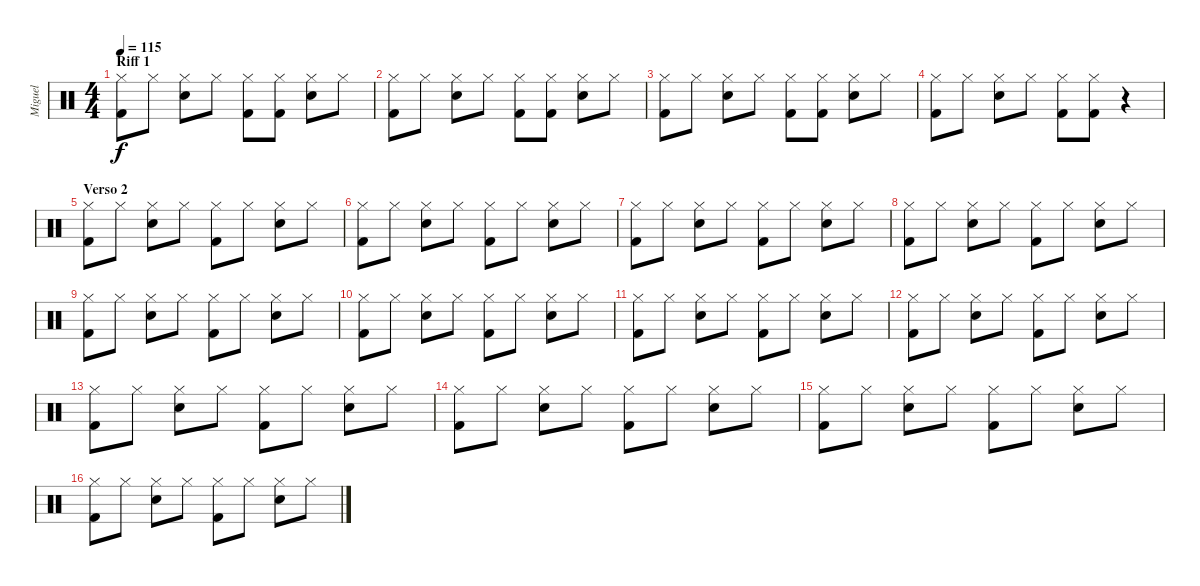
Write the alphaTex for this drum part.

\track ("Miguel" "Miguel") {instrument percussion}
\staff {score}
\articulation defaults
\ts (4 4)
\section ("" "Riff 1")
\tempo 115
\clef neutral
\ks c
("Hi-Hat (closed)" "Kick (hit) 2").8{dy f} "Hi-Hat (closed)".8 ("Hi-Hat (closed)" "Snare (hit) 2").8 "Hi-Hat (closed)".8 ("Hi-Hat (closed)" "Kick (hit) 2").8 ("Hi-Hat (closed)" "Kick (hit) 2").8 ("Hi-Hat (closed)" "Snare (hit) 2").8 "Hi-Hat (closed)".8 |
("Hi-Hat (closed)" "Kick (hit) 2").8 "Hi-Hat (closed)".8 ("Hi-Hat (closed)" "Snare (hit) 2").8 "Hi-Hat (closed)".8 ("Hi-Hat (closed)" "Kick (hit) 2").8 ("Hi-Hat (closed)" "Kick (hit) 2").8 ("Hi-Hat (closed)" "Snare (hit) 2").8 "Hi-Hat (closed)".8 |
("Hi-Hat (closed)" "Kick (hit) 2").8 "Hi-Hat (closed)".8 ("Hi-Hat (closed)" "Snare (hit) 2").8 "Hi-Hat (closed)".8 ("Hi-Hat (closed)" "Kick (hit) 2").8 ("Hi-Hat (closed)" "Kick (hit) 2").8 ("Hi-Hat (closed)" "Snare (hit) 2").8 "Hi-Hat (closed)".8 |
("Hi-Hat (closed)" "Kick (hit) 2").8 "Hi-Hat (closed)".8 ("Hi-Hat (closed)" "Snare (hit) 2").8 "Hi-Hat (closed)".8 ("Hi-Hat (closed)" "Kick (hit) 2").8 ("Hi-Hat (closed)" "Kick (hit) 2").8 r.4 |
\section ("" "Verso 2")
("Hi-Hat (closed)" "Kick (hit) 2").8 "Hi-Hat (closed)".8 ("Hi-Hat (closed)" "Snare (hit) 2").8 "Hi-Hat (closed)".8 ("Hi-Hat (closed)" "Kick (hit) 2").8 "Hi-Hat (closed)".8 ("Hi-Hat (closed)" "Snare (hit) 2").8 "Hi-Hat (closed)".8 |
("Hi-Hat (closed)" "Kick (hit) 2").8 "Hi-Hat (closed)".8 ("Hi-Hat (closed)" "Snare (hit) 2").8 "Hi-Hat (closed)".8 ("Hi-Hat (closed)" "Kick (hit) 2").8 "Hi-Hat (closed)".8 ("Hi-Hat (closed)" "Snare (hit) 2").8 "Hi-Hat (closed)".8 |
("Hi-Hat (closed)" "Kick (hit) 2").8 "Hi-Hat (closed)".8 ("Hi-Hat (closed)" "Snare (hit) 2").8 "Hi-Hat (closed)".8 ("Hi-Hat (closed)" "Kick (hit) 2").8 "Hi-Hat (closed)".8 ("Hi-Hat (closed)" "Snare (hit) 2").8 "Hi-Hat (closed)".8 |
("Hi-Hat (closed)" "Kick (hit) 2").8 "Hi-Hat (closed)".8 ("Hi-Hat (closed)" "Snare (hit) 2").8 "Hi-Hat (closed)".8 ("Hi-Hat (closed)" "Kick (hit) 2").8 "Hi-Hat (closed)".8 ("Hi-Hat (closed)" "Snare (hit) 2").8 "Hi-Hat (closed)".8 |
("Hi-Hat (closed)" "Kick (hit) 2").8 "Hi-Hat (closed)".8 ("Hi-Hat (closed)" "Snare (hit) 2").8 "Hi-Hat (closed)".8 ("Hi-Hat (closed)" "Kick (hit) 2").8 "Hi-Hat (closed)".8 ("Hi-Hat (closed)" "Snare (hit) 2").8 "Hi-Hat (closed)".8 |
("Hi-Hat (closed)" "Kick (hit) 2").8 "Hi-Hat (closed)".8 ("Hi-Hat (closed)" "Snare (hit) 2").8 "Hi-Hat (closed)".8 ("Hi-Hat (closed)" "Kick (hit) 2").8 "Hi-Hat (closed)".8 ("Hi-Hat (closed)" "Snare (hit) 2").8 "Hi-Hat (closed)".8 |
("Hi-Hat (closed)" "Kick (hit) 2").8 "Hi-Hat (closed)".8 ("Hi-Hat (closed)" "Snare (hit) 2").8 "Hi-Hat (closed)".8 ("Hi-Hat (closed)" "Kick (hit) 2").8 "Hi-Hat (closed)".8 ("Hi-Hat (closed)" "Snare (hit) 2").8 "Hi-Hat (closed)".8 |
("Hi-Hat (closed)" "Kick (hit) 2").8 "Hi-Hat (closed)".8 ("Hi-Hat (closed)" "Snare (hit) 2").8 "Hi-Hat (closed)".8 ("Hi-Hat (closed)" "Kick (hit) 2").8 "Hi-Hat (closed)".8 ("Hi-Hat (closed)" "Snare (hit) 2").8 "Hi-Hat (closed)".8 |
("Hi-Hat (closed)" "Kick (hit) 2").8 "Hi-Hat (closed)".8 ("Hi-Hat (closed)" "Snare (hit) 2").8 "Hi-Hat (closed)".8 ("Hi-Hat (closed)" "Kick (hit) 2").8 "Hi-Hat (closed)".8 ("Hi-Hat (closed)" "Snare (hit) 2").8 "Hi-Hat (closed)".8 |
("Hi-Hat (closed)" "Kick (hit) 2").8 "Hi-Hat (closed)".8 ("Hi-Hat (closed)" "Snare (hit) 2").8 "Hi-Hat (closed)".8 ("Hi-Hat (closed)" "Kick (hit) 2").8 "Hi-Hat (closed)".8 ("Hi-Hat (closed)" "Snare (hit) 2").8 "Hi-Hat (closed)".8 |
("Hi-Hat (closed)" "Kick (hit) 2").8 "Hi-Hat (closed)".8 ("Hi-Hat (closed)" "Snare (hit) 2").8 "Hi-Hat (closed)".8 ("Hi-Hat (closed)" "Kick (hit) 2").8 "Hi-Hat (closed)".8 ("Hi-Hat (closed)" "Snare (hit) 2").8 "Hi-Hat (closed)".8 |
("Hi-Hat (closed)" "Kick (hit) 2").8 "Hi-Hat (closed)".8 ("Hi-Hat (closed)" "Snare (hit) 2").8 "Hi-Hat (closed)".8 ("Hi-Hat (closed)" "Kick (hit) 2").8 "Hi-Hat (closed)".8 ("Hi-Hat (closed)" "Snare (hit) 2").8 "Hi-Hat (closed)".8
